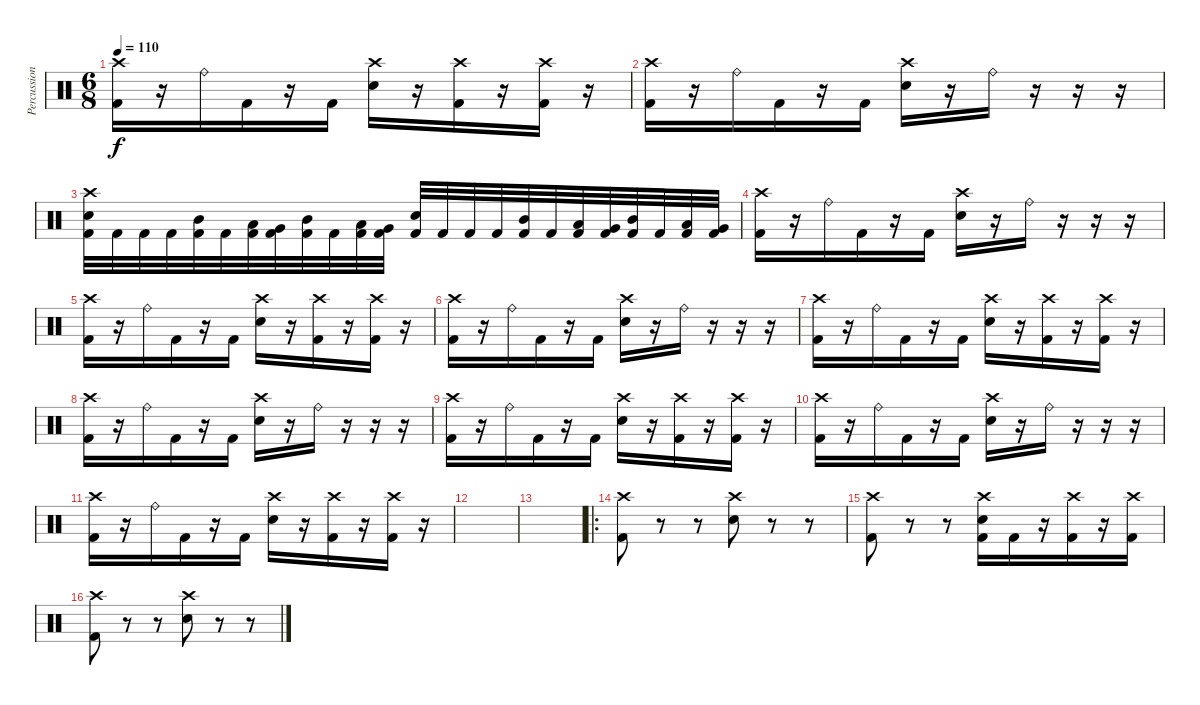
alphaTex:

\track ("Percussion" "Percussion") {instrument percussion}
\staff {score}
\articulation defaults
\ts (6 8)
\tempo 110
\clef neutral
\ks c
("Crash high (hit)" "Kick (hit) 2").16{dy f} r.16 "Ride (bell)".16 "Kick (hit) 2".16 r.16 "Kick (hit) 2".16 ("Crash high (hit)" "Electric Snare (hit)").16 r.16 ("Crash high (hit)" "Kick (hit) 2").16 r.16 ("Crash high (hit)" "Kick (hit) 2").16 r.16 |
("Crash high (hit)" "Kick (hit) 2").16 r.16 "Ride (bell)".16 "Kick (hit) 2".16 r.16 "Kick (hit) 2".16 ("Crash high (hit)" "Electric Snare (hit)").16 r.16 "Ride (bell)".16 r.16 r.16 r.16 |
("Crash high (hit)" "Electric Snare (hit)" "Kick (hit) 2").32 "Kick (hit) 2".32 "Kick (hit) 2".32 "Kick (hit) 2".32 ("Mid Tom (hit)" "Kick (hit) 2").32 "Kick (hit) 2".32 ("Low Tom (hit)" "Kick (hit) 2").32 ("Very Low Tom (hit)" "Kick (hit) 2").32 ("Mid Tom (hit)" "Kick (hit) 2").32 "Kick (hit) 2".32 ("Low Tom (hit)" "Kick (hit) 2").32 ("Very Low Tom (hit)" "Kick (hit) 2").32 ("Electric Snare (hit)" "Kick (hit) 2").32 "Kick (hit) 2".32 "Kick (hit) 2".32 "Kick (hit) 2".32 ("Mid Tom (hit)" "Kick (hit) 2").32 "Kick (hit) 2".32 ("Low Tom (hit)" "Kick (hit) 2").32 ("Very Low Tom (hit)" "Kick (hit) 2").32 ("Mid Tom (hit)" "Kick (hit) 2").32 "Kick (hit) 2".32 ("Low Tom (hit)" "Kick (hit) 2").32 ("Very Low Tom (hit)" "Kick (hit) 2").32 |
("Crash high (hit)" "Kick (hit) 2").16 r.16 "Ride (bell)".16 "Kick (hit) 2".16 r.16 "Kick (hit) 2".16 ("Crash high (hit)" "Electric Snare (hit)").16 r.16 "Ride (bell)".16 r.16 r.16 r.16 |
("Crash high (hit)" "Kick (hit) 2").16 r.16 "Ride (bell)".16 "Kick (hit) 2".16 r.16 "Kick (hit) 2".16 ("Crash high (hit)" "Electric Snare (hit)").16 r.16 ("Crash high (hit)" "Kick (hit) 2").16 r.16 ("Crash high (hit)" "Kick (hit) 2").16 r.16 |
("Crash high (hit)" "Kick (hit) 2").16 r.16 "Ride (bell)".16 "Kick (hit) 2".16 r.16 "Kick (hit) 2".16 ("Crash high (hit)" "Electric Snare (hit)").16 r.16 "Ride (bell)".16 r.16 r.16 r.16 |
("Crash high (hit)" "Kick (hit) 2").16 r.16 "Ride (bell)".16 "Kick (hit) 2".16 r.16 "Kick (hit) 2".16 ("Crash high (hit)" "Electric Snare (hit)").16 r.16 ("Crash high (hit)" "Kick (hit) 2").16 r.16 ("Crash high (hit)" "Kick (hit) 2").16 r.16 |
("Crash high (hit)" "Kick (hit) 2").16 r.16 "Ride (bell)".16 "Kick (hit) 2".16 r.16 "Kick (hit) 2".16 ("Crash high (hit)" "Electric Snare (hit)").16 r.16 "Ride (bell)".16 r.16 r.16 r.16 |
("Crash high (hit)" "Kick (hit) 2").16 r.16 "Ride (bell)".16 "Kick (hit) 2".16 r.16 "Kick (hit) 2".16 ("Crash high (hit)" "Electric Snare (hit)").16 r.16 ("Crash high (hit)" "Kick (hit) 2").16 r.16 ("Crash high (hit)" "Kick (hit) 2").16 r.16 |
("Crash high (hit)" "Kick (hit) 2").16 r.16 "Ride (bell)".16 "Kick (hit) 2".16 r.16 "Kick (hit) 2".16 ("Crash high (hit)" "Electric Snare (hit)").16 r.16 "Ride (bell)".16 r.16 r.16 r.16 |
("Crash high (hit)" "Kick (hit) 2").16 r.16 "Ride (bell)".16 "Kick (hit) 2".16 r.16 "Kick (hit) 2".16 ("Crash high (hit)" "Electric Snare (hit)").16 r.16 ("Crash high (hit)" "Kick (hit) 2").16 r.16 ("Crash high (hit)" "Kick (hit) 2").16 r.16 |
|
|
\ro
("Crash high (hit)" "Kick (hit) 2").8 r.8 r.8 ("Crash high (hit)" "Electric Snare (hit)").8 r.8 r.8 |
("Crash high (hit)" "Kick (hit) 2").8 r.8 r.8 ("Crash high (hit)" "Electric Snare (hit)" "Kick (hit) 2").16 "Kick (hit) 2".16 r.16 ("Crash high (hit)" "Kick (hit) 2").16 r.16 ("Crash high (hit)" "Kick (hit) 2").16 |
("Crash high (hit)" "Kick (hit) 2").8 r.8 r.8 ("Crash high (hit)" "Electric Snare (hit)").8 r.8 r.8
